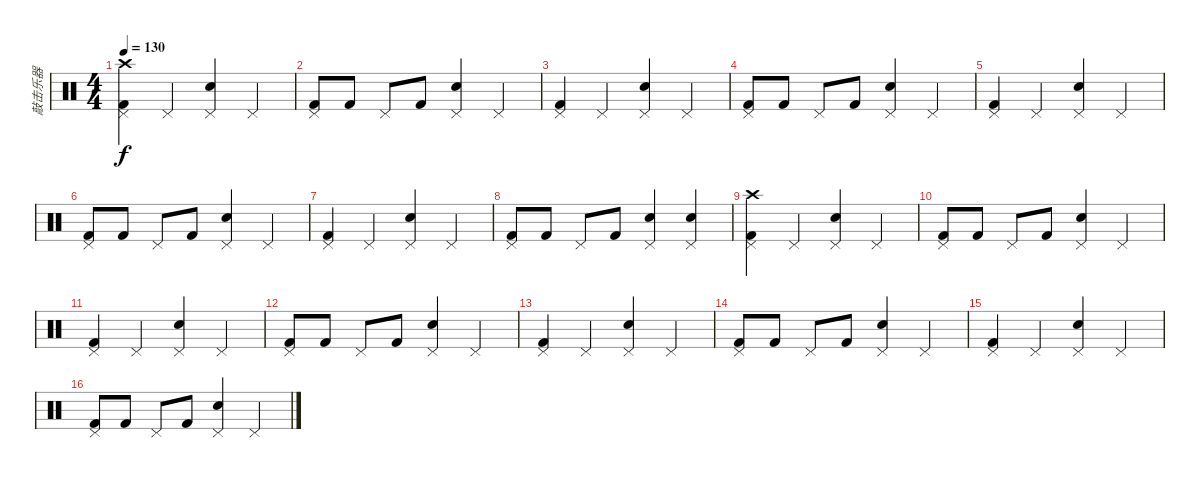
\track ("敲击乐器" "敲击乐器") {instrument percussion}
\staff {score}
\articulation defaults
\ts (4 4)
\tempo 130
\clef neutral
\ks c
("Crash high (hit)" "Kick (hit) 2" "Pedal Hi-Hat (hit)").4{dy f} "Pedal Hi-Hat (hit)".4 ("Pedal Hi-Hat (hit)" "Electric Snare (hit)").4 "Pedal Hi-Hat (hit)".4 |
("Pedal Hi-Hat (hit)" "Kick (hit) 2").8 "Kick (hit) 2".8 "Pedal Hi-Hat (hit)".8 "Kick (hit) 2".8 ("Pedal Hi-Hat (hit)" "Electric Snare (hit)").4 "Pedal Hi-Hat (hit)".4 |
("Kick (hit) 2" "Pedal Hi-Hat (hit)").4 "Pedal Hi-Hat (hit)".4 ("Pedal Hi-Hat (hit)" "Electric Snare (hit)").4 "Pedal Hi-Hat (hit)".4 |
("Pedal Hi-Hat (hit)" "Kick (hit) 2").8 "Kick (hit) 2".8 "Pedal Hi-Hat (hit)".8 "Kick (hit) 2".8 ("Pedal Hi-Hat (hit)" "Electric Snare (hit)").4 "Pedal Hi-Hat (hit)".4 |
("Kick (hit) 2" "Pedal Hi-Hat (hit)").4 "Pedal Hi-Hat (hit)".4 ("Pedal Hi-Hat (hit)" "Electric Snare (hit)").4 "Pedal Hi-Hat (hit)".4 |
("Pedal Hi-Hat (hit)" "Kick (hit) 2").8 "Kick (hit) 2".8 "Pedal Hi-Hat (hit)".8 "Kick (hit) 2".8 ("Pedal Hi-Hat (hit)" "Electric Snare (hit)").4 "Pedal Hi-Hat (hit)".4 |
("Kick (hit) 2" "Pedal Hi-Hat (hit)").4 "Pedal Hi-Hat (hit)".4 ("Pedal Hi-Hat (hit)" "Electric Snare (hit)").4 "Pedal Hi-Hat (hit)".4 |
("Pedal Hi-Hat (hit)" "Kick (hit) 2").8 "Kick (hit) 2".8 "Pedal Hi-Hat (hit)".8 "Kick (hit) 2".8 ("Pedal Hi-Hat (hit)" "Electric Snare (hit)").4 ("Pedal Hi-Hat (hit)" "Electric Snare (hit)").4 |
("Crash high (hit)" "Kick (hit) 2" "Pedal Hi-Hat (hit)").4 "Pedal Hi-Hat (hit)".4 ("Pedal Hi-Hat (hit)" "Electric Snare (hit)").4 "Pedal Hi-Hat (hit)".4 |
("Pedal Hi-Hat (hit)" "Kick (hit) 2").8 "Kick (hit) 2".8 "Pedal Hi-Hat (hit)".8 "Kick (hit) 2".8 ("Pedal Hi-Hat (hit)" "Electric Snare (hit)").4 "Pedal Hi-Hat (hit)".4 |
("Kick (hit) 2" "Pedal Hi-Hat (hit)").4 "Pedal Hi-Hat (hit)".4 ("Pedal Hi-Hat (hit)" "Electric Snare (hit)").4 "Pedal Hi-Hat (hit)".4 |
("Pedal Hi-Hat (hit)" "Kick (hit) 2").8 "Kick (hit) 2".8 "Pedal Hi-Hat (hit)".8 "Kick (hit) 2".8 ("Pedal Hi-Hat (hit)" "Electric Snare (hit)").4 "Pedal Hi-Hat (hit)".4 |
("Kick (hit) 2" "Pedal Hi-Hat (hit)").4 "Pedal Hi-Hat (hit)".4 ("Pedal Hi-Hat (hit)" "Electric Snare (hit)").4 "Pedal Hi-Hat (hit)".4 |
("Pedal Hi-Hat (hit)" "Kick (hit) 2").8 "Kick (hit) 2".8 "Pedal Hi-Hat (hit)".8 "Kick (hit) 2".8 ("Pedal Hi-Hat (hit)" "Electric Snare (hit)").4 "Pedal Hi-Hat (hit)".4 |
("Kick (hit) 2" "Pedal Hi-Hat (hit)").4 "Pedal Hi-Hat (hit)".4 ("Pedal Hi-Hat (hit)" "Electric Snare (hit)").4 "Pedal Hi-Hat (hit)".4 |
("Pedal Hi-Hat (hit)" "Kick (hit) 2").8 "Kick (hit) 2".8 "Pedal Hi-Hat (hit)".8 "Kick (hit) 2".8 ("Pedal Hi-Hat (hit)" "Electric Snare (hit)").4 "Pedal Hi-Hat (hit)".4
